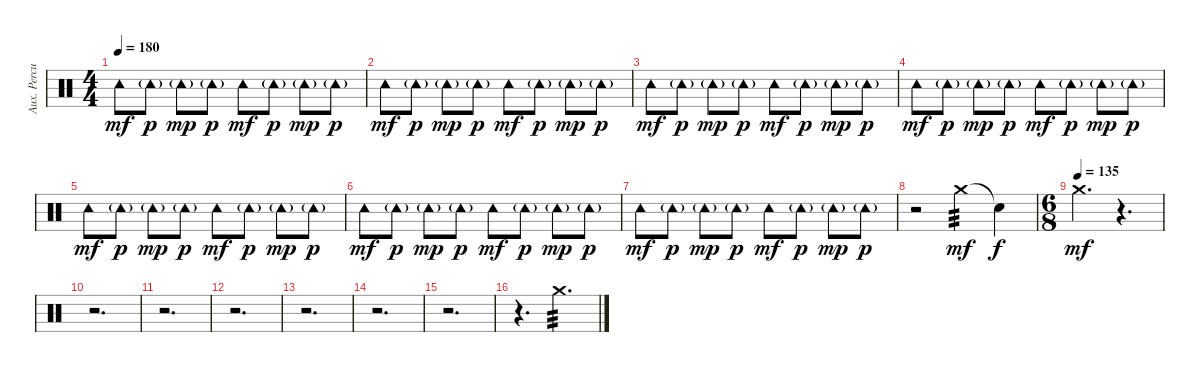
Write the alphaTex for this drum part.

\track ("Aux. Percussion" "Aux. Percu") {instrument percussion}
\staff {score}
\articulation defaults
\ts (4 4)
\tempo 180
\clef neutral
\ks c "Tambourine (hit)".8{dy mf} "Tambourine (hit)"{g}.8{dy p} "Tambourine (hit)"{g}.8{dy mp} "Tambourine (hit)"{g}.8{dy p} "Tambourine (hit)".8{dy mf} "Tambourine (hit)"{g}.8{dy p} "Tambourine (hit)"{g}.8{dy mp} "Tambourine (hit)"{g}.8{dy p}
|
"Tambourine (hit)".8{dy mf} "Tambourine (hit)"{g}.8{dy p} "Tambourine (hit)"{g}.8{dy mp} "Tambourine (hit)"{g}.8{dy p} "Tambourine (hit)".8{dy mf} "Tambourine (hit)"{g}.8{dy p} "Tambourine (hit)"{g}.8{dy mp} "Tambourine (hit)"{g}.8{dy p} |
"Tambourine (hit)".8{dy mf} "Tambourine (hit)"{g}.8{dy p} "Tambourine (hit)"{g}.8{dy mp} "Tambourine (hit)"{g}.8{dy p} "Tambourine (hit)".8{dy mf} "Tambourine (hit)"{g}.8{dy p} "Tambourine (hit)"{g}.8{dy mp} "Tambourine (hit)"{g}.8{dy p} |
"Tambourine (hit)".8{dy mf} "Tambourine (hit)"{g}.8{dy p} "Tambourine (hit)"{g}.8{dy mp} "Tambourine (hit)"{g}.8{dy p} "Tambourine (hit)".8{dy mf} "Tambourine (hit)"{g}.8{dy p} "Tambourine (hit)"{g}.8{dy mp} "Tambourine (hit)"{g}.8{dy p} |
"Tambourine (hit)".8{dy mf} "Tambourine (hit)"{g}.8{dy p} "Tambourine (hit)"{g}.8{dy mp} "Tambourine (hit)"{g}.8{dy p} "Tambourine (hit)".8{dy mf} "Tambourine (hit)"{g}.8{dy p} "Tambourine (hit)"{g}.8{dy mp} "Tambourine (hit)"{g}.8{dy p} |
"Tambourine (hit)".8{dy mf} "Tambourine (hit)"{g}.8{dy p} "Tambourine (hit)"{g}.8{dy mp} "Tambourine (hit)"{g}.8{dy p} "Tambourine (hit)".8{dy mf} "Tambourine (hit)"{g}.8{dy p} "Tambourine (hit)"{g}.8{dy mp} "Tambourine (hit)"{g}.8{dy p} |
"Tambourine (hit)".8{dy mf} "Tambourine (hit)"{g}.8{dy p} "Tambourine (hit)"{g}.8{dy mp} "Tambourine (hit)"{g}.8{dy p} "Tambourine (hit)".8{dy mf} "Tambourine (hit)"{g}.8{dy p} "Tambourine (hit)"{g}.8{dy mp} "Tambourine (hit)"{g}.8{dy p} |
r.2 "Crash medium (hit)".4{tp 3 dy mf} "Snare (hit)"{t}.4{dy f} |
\ts (6 8)
\tempo (135)
"Crash medium (hit)".4{d dy mf} r.4{d} |
r.2{d} |
r.2{d} |
r.2{d} |
r.2{d} |
r.2{d} |
r.2{d} |
r.4{d} "Crash medium (hit)".4{d tp 3}
